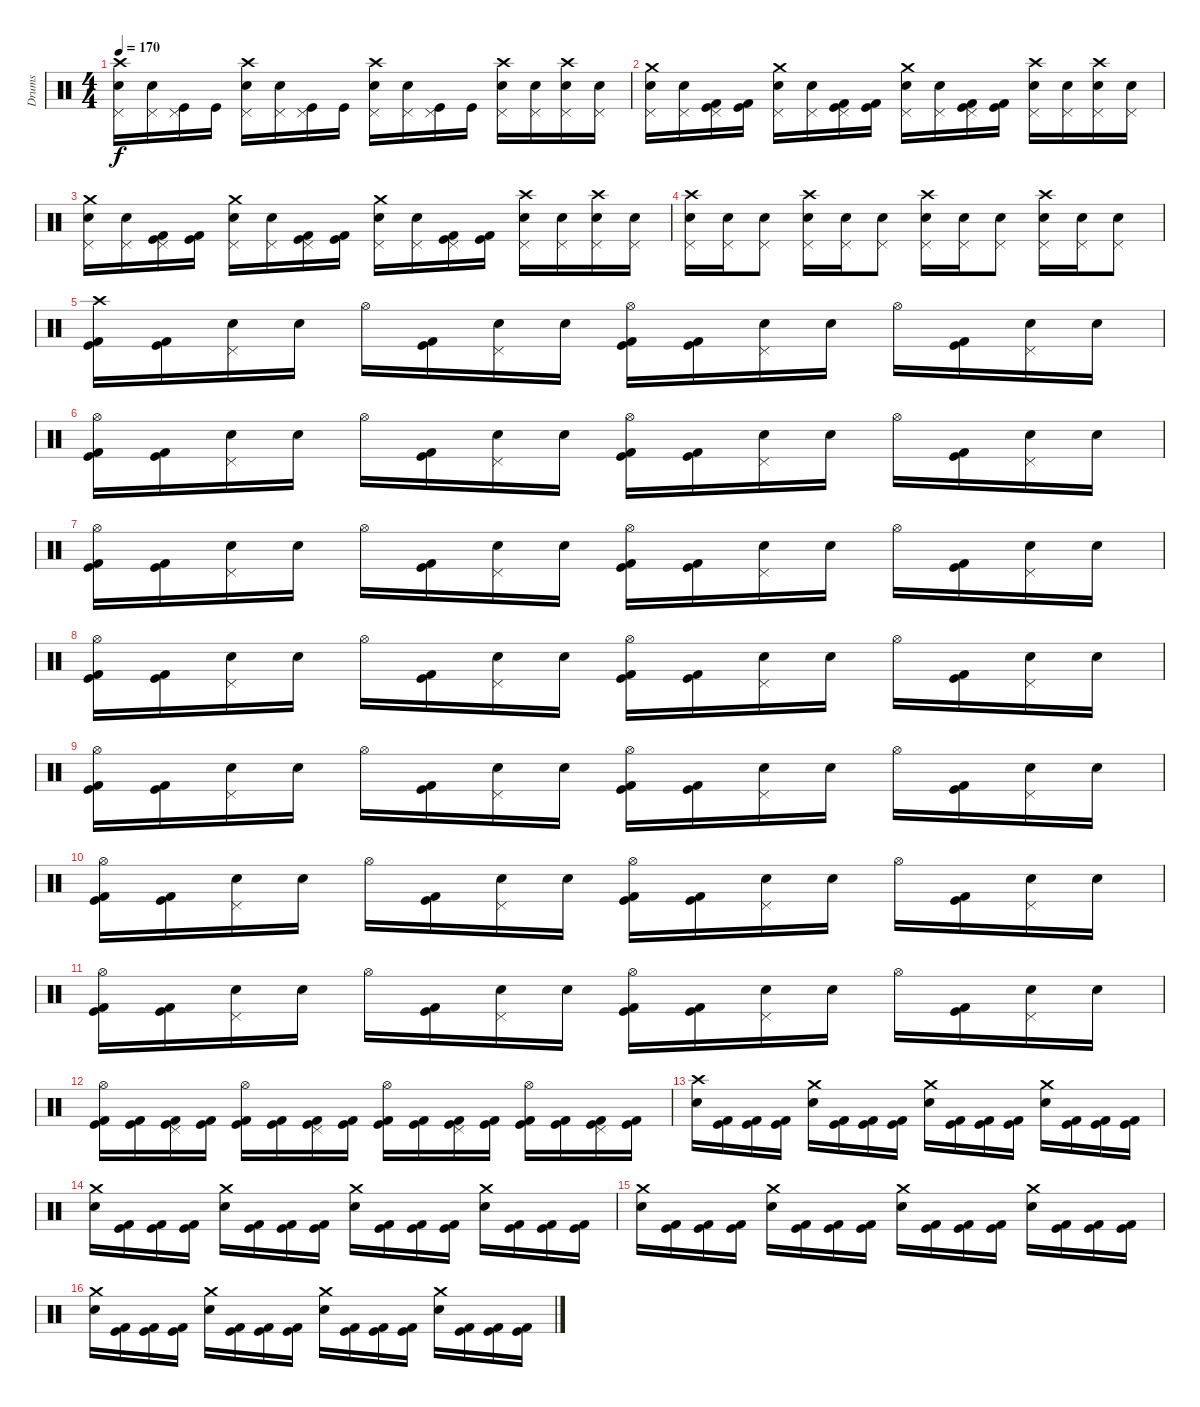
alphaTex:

\track ("Drums" "Drums") {instrument percussion}
\staff {score}
\articulation defaults
\ts (4 4)
\tempo 170
\clef neutral
\ks c
("Crash high (hit)" "Pedal Hi-Hat (hit)" "Electric Snare (hit)").16{dy f} ("Pedal Hi-Hat (hit)" "Electric Snare (hit)").16 ("Pedal Hi-Hat (hit)" "Kick (hit)").16 "Kick (hit)".16 ("Crash high (hit)" "Pedal Hi-Hat (hit)" "Electric Snare (hit)").16 ("Pedal Hi-Hat (hit)" "Electric Snare (hit)").16 ("Pedal Hi-Hat (hit)" "Kick (hit)").16 "Kick (hit)".16 ("Crash high (hit)" "Pedal Hi-Hat (hit)" "Electric Snare (hit)").16 ("Pedal Hi-Hat (hit)" "Electric Snare (hit)").16 ("Pedal Hi-Hat (hit)" "Kick (hit)").16 "Kick (hit)".16 ("Crash high (hit)" "Pedal Hi-Hat (hit)" "Electric Snare (hit)").16 ("Pedal Hi-Hat (hit)" "Electric Snare (hit)").16 ("Crash high (hit)" "Pedal Hi-Hat (hit)" "Electric Snare (hit)").16 ("Pedal Hi-Hat (hit)" "Electric Snare (hit)").16 |
("Crash medium (hit)" "Pedal Hi-Hat (hit)" "Electric Snare (hit)").16 ("Pedal Hi-Hat (hit)" "Electric Snare (hit)").16 ("Pedal Hi-Hat (hit)" "Kick (hit) 2" "Kick (hit)").16 ("Kick (hit) 2" "Kick (hit)").16 ("Crash medium (hit)" "Pedal Hi-Hat (hit)" "Electric Snare (hit)").16 ("Pedal Hi-Hat (hit)" "Electric Snare (hit)").16 ("Pedal Hi-Hat (hit)" "Kick (hit) 2" "Kick (hit)").16 ("Kick (hit) 2" "Kick (hit)").16 ("Crash medium (hit)" "Pedal Hi-Hat (hit)" "Electric Snare (hit)").16 ("Pedal Hi-Hat (hit)" "Electric Snare (hit)").16 ("Pedal Hi-Hat (hit)" "Kick (hit) 2" "Kick (hit)").16 ("Kick (hit) 2" "Kick (hit)").16 ("Crash high (hit)" "Pedal Hi-Hat (hit)" "Electric Snare (hit)").16 ("Pedal Hi-Hat (hit)" "Electric Snare (hit)").16 ("Crash high (hit)" "Pedal Hi-Hat (hit)" "Electric Snare (hit)").16 ("Pedal Hi-Hat (hit)" "Electric Snare (hit)").16 |
("Crash medium (hit)" "Pedal Hi-Hat (hit)" "Electric Snare (hit)").16 ("Pedal Hi-Hat (hit)" "Electric Snare (hit)").16 ("Pedal Hi-Hat (hit)" "Kick (hit) 2" "Kick (hit)").16 ("Kick (hit) 2" "Kick (hit)").16 ("Crash medium (hit)" "Pedal Hi-Hat (hit)" "Electric Snare (hit)").16 ("Pedal Hi-Hat (hit)" "Electric Snare (hit)").16 ("Pedal Hi-Hat (hit)" "Kick (hit) 2" "Kick (hit)").16 ("Kick (hit) 2" "Kick (hit)").16 ("Crash medium (hit)" "Pedal Hi-Hat (hit)" "Electric Snare (hit)").16 ("Pedal Hi-Hat (hit)" "Electric Snare (hit)").16 ("Pedal Hi-Hat (hit)" "Kick (hit) 2" "Kick (hit)").16 ("Kick (hit) 2" "Kick (hit)").16 ("Crash high (hit)" "Pedal Hi-Hat (hit)" "Electric Snare (hit)").16 ("Pedal Hi-Hat (hit)" "Electric Snare (hit)").16 ("Crash high (hit)" "Pedal Hi-Hat (hit)" "Electric Snare (hit)").16 ("Pedal Hi-Hat (hit)" "Electric Snare (hit)").16 |
("Crash high (hit)" "Pedal Hi-Hat (hit)" "Electric Snare (hit)").16 ("Pedal Hi-Hat (hit)" "Electric Snare (hit)").16 ("Pedal Hi-Hat (hit)" "Electric Snare (hit)").8 ("Crash high (hit)" "Pedal Hi-Hat (hit)" "Electric Snare (hit)").16 ("Pedal Hi-Hat (hit)" "Electric Snare (hit)").16 ("Pedal Hi-Hat (hit)" "Electric Snare (hit)").8 ("Crash high (hit)" "Pedal Hi-Hat (hit)" "Electric Snare (hit)").16 ("Pedal Hi-Hat (hit)" "Electric Snare (hit)").16 ("Pedal Hi-Hat (hit)" "Electric Snare (hit)").8 ("Crash high (hit)" "Pedal Hi-Hat (hit)" "Electric Snare (hit)").16 ("Pedal Hi-Hat (hit)" "Electric Snare (hit)").16 ("Pedal Hi-Hat (hit)" "Electric Snare (hit)").8 |
("Crash high (hit)" "Kick (hit) 2" "Kick (hit)").16 ("Kick (hit) 2" "Kick (hit)").16 ("Pedal Hi-Hat (hit)" "Electric Snare (hit)").16 "Electric Snare (hit)".16 "Hi-Hat (open)".16 ("Kick (hit) 2" "Kick (hit)").16 ("Pedal Hi-Hat (hit)" "Electric Snare (hit)").16 "Electric Snare (hit)".16 ("Hi-Hat (open)" "Kick (hit) 2" "Kick (hit)").16 ("Kick (hit) 2" "Kick (hit)").16 ("Pedal Hi-Hat (hit)" "Electric Snare (hit)").16 "Electric Snare (hit)".16 "Hi-Hat (open)".16 ("Kick (hit) 2" "Kick (hit)").16 ("Pedal Hi-Hat (hit)" "Electric Snare (hit)").16 "Electric Snare (hit)".16 |
("Hi-Hat (open)" "Kick (hit) 2" "Kick (hit)").16 ("Kick (hit) 2" "Kick (hit)").16 ("Pedal Hi-Hat (hit)" "Electric Snare (hit)").16 "Electric Snare (hit)".16 "Hi-Hat (open)".16 ("Kick (hit) 2" "Kick (hit)").16 ("Pedal Hi-Hat (hit)" "Electric Snare (hit)").16 "Electric Snare (hit)".16 ("Hi-Hat (open)" "Kick (hit) 2" "Kick (hit)").16 ("Kick (hit) 2" "Kick (hit)").16 ("Pedal Hi-Hat (hit)" "Electric Snare (hit)").16 "Electric Snare (hit)".16 "Hi-Hat (open)".16 ("Kick (hit) 2" "Kick (hit)").16 ("Pedal Hi-Hat (hit)" "Electric Snare (hit)").16 "Electric Snare (hit)".16 |
("Hi-Hat (open)" "Kick (hit) 2" "Kick (hit)").16 ("Kick (hit) 2" "Kick (hit)").16 ("Pedal Hi-Hat (hit)" "Electric Snare (hit)").16 "Electric Snare (hit)".16 "Hi-Hat (open)".16 ("Kick (hit) 2" "Kick (hit)").16 ("Pedal Hi-Hat (hit)" "Electric Snare (hit)").16 "Electric Snare (hit)".16 ("Hi-Hat (open)" "Kick (hit) 2" "Kick (hit)").16 ("Kick (hit) 2" "Kick (hit)").16 ("Pedal Hi-Hat (hit)" "Electric Snare (hit)").16 "Electric Snare (hit)".16 "Hi-Hat (open)".16 ("Kick (hit) 2" "Kick (hit)").16 ("Pedal Hi-Hat (hit)" "Electric Snare (hit)").16 "Electric Snare (hit)".16 |
("Hi-Hat (open)" "Kick (hit) 2" "Kick (hit)").16 ("Kick (hit) 2" "Kick (hit)").16 ("Pedal Hi-Hat (hit)" "Electric Snare (hit)").16 "Electric Snare (hit)".16 "Hi-Hat (open)".16 ("Kick (hit) 2" "Kick (hit)").16 ("Pedal Hi-Hat (hit)" "Electric Snare (hit)").16 "Electric Snare (hit)".16 ("Hi-Hat (open)" "Kick (hit) 2" "Kick (hit)").16 ("Kick (hit) 2" "Kick (hit)").16 ("Pedal Hi-Hat (hit)" "Electric Snare (hit)").16 "Electric Snare (hit)".16 "Hi-Hat (open)".16 ("Kick (hit) 2" "Kick (hit)").16 ("Pedal Hi-Hat (hit)" "Electric Snare (hit)").16 "Electric Snare (hit)".16 |
("Hi-Hat (open)" "Kick (hit) 2" "Kick (hit)").16 ("Kick (hit) 2" "Kick (hit)").16 ("Pedal Hi-Hat (hit)" "Electric Snare (hit)").16 "Electric Snare (hit)".16 "Hi-Hat (open)".16 ("Kick (hit) 2" "Kick (hit)").16 ("Pedal Hi-Hat (hit)" "Electric Snare (hit)").16 "Electric Snare (hit)".16 ("Hi-Hat (open)" "Kick (hit) 2" "Kick (hit)").16 ("Kick (hit) 2" "Kick (hit)").16 ("Pedal Hi-Hat (hit)" "Electric Snare (hit)").16 "Electric Snare (hit)".16 "Hi-Hat (open)".16 ("Kick (hit) 2" "Kick (hit)").16 ("Pedal Hi-Hat (hit)" "Electric Snare (hit)").16 "Electric Snare (hit)".16 |
("Hi-Hat (open)" "Kick (hit) 2" "Kick (hit)").16 ("Kick (hit) 2" "Kick (hit)").16 ("Pedal Hi-Hat (hit)" "Electric Snare (hit)").16 "Electric Snare (hit)".16 "Hi-Hat (open)".16 ("Kick (hit) 2" "Kick (hit)").16 ("Pedal Hi-Hat (hit)" "Electric Snare (hit)").16 "Electric Snare (hit)".16 ("Hi-Hat (open)" "Kick (hit) 2" "Kick (hit)").16 ("Kick (hit) 2" "Kick (hit)").16 ("Pedal Hi-Hat (hit)" "Electric Snare (hit)").16 "Electric Snare (hit)".16 "Hi-Hat (open)".16 ("Kick (hit) 2" "Kick (hit)").16 ("Pedal Hi-Hat (hit)" "Electric Snare (hit)").16 "Electric Snare (hit)".16 |
("Hi-Hat (open)" "Kick (hit) 2" "Kick (hit)").16 ("Kick (hit) 2" "Kick (hit)").16 ("Pedal Hi-Hat (hit)" "Electric Snare (hit)").16 "Electric Snare (hit)".16 "Hi-Hat (open)".16 ("Kick (hit) 2" "Kick (hit)").16 ("Pedal Hi-Hat (hit)" "Electric Snare (hit)").16 "Electric Snare (hit)".16 ("Hi-Hat (open)" "Kick (hit) 2" "Kick (hit)").16 ("Kick (hit) 2" "Kick (hit)").16 ("Pedal Hi-Hat (hit)" "Electric Snare (hit)").16 "Electric Snare (hit)".16 "Hi-Hat (open)".16 ("Kick (hit) 2" "Kick (hit)").16 ("Pedal Hi-Hat (hit)" "Electric Snare (hit)").16 "Electric Snare (hit)".16 |
("Hi-Hat (open)" "Kick (hit) 2" "Kick (hit)").16 ("Kick (hit) 2" "Kick (hit)").16 ("Pedal Hi-Hat (hit)" "Kick (hit) 2" "Kick (hit)").16 ("Kick (hit) 2" "Kick (hit)").16 ("Hi-Hat (open)" "Kick (hit) 2" "Kick (hit)").16 ("Kick (hit) 2" "Kick (hit)").16 ("Pedal Hi-Hat (hit)" "Kick (hit) 2" "Kick (hit)").16 ("Kick (hit) 2" "Kick (hit)").16 ("Hi-Hat (open)" "Kick (hit) 2" "Kick (hit)").16 ("Kick (hit) 2" "Kick (hit)").16 ("Pedal Hi-Hat (hit)" "Kick (hit) 2" "Kick (hit)").16 ("Kick (hit) 2" "Kick (hit)").16 ("Hi-Hat (open)" "Kick (hit) 2" "Kick (hit)").16 ("Kick (hit) 2" "Kick (hit)").16 ("Pedal Hi-Hat (hit)" "Kick (hit) 2" "Kick (hit)").16 ("Kick (hit) 2" "Kick (hit)").16 |
("Crash high (hit)" "Electric Snare (hit)").16 ("Kick (hit) 2" "Kick (hit)").16 ("Kick (hit) 2" "Kick (hit)").16 ("Kick (hit) 2" "Kick (hit)").16 ("Crash medium (hit)" "Electric Snare (hit)").16 ("Kick (hit) 2" "Kick (hit)").16 ("Kick (hit) 2" "Kick (hit)").16 ("Kick (hit) 2" "Kick (hit)").16 ("Crash medium (hit)" "Electric Snare (hit)").16 ("Kick (hit) 2" "Kick (hit)").16 ("Kick (hit) 2" "Kick (hit)").16 ("Kick (hit) 2" "Kick (hit)").16 ("Crash medium (hit)" "Electric Snare (hit)").16 ("Kick (hit) 2" "Kick (hit)").16 ("Kick (hit) 2" "Kick (hit)").16 ("Kick (hit) 2" "Kick (hit)").16 |
("Crash medium (hit)" "Electric Snare (hit)").16 ("Kick (hit) 2" "Kick (hit)").16 ("Kick (hit) 2" "Kick (hit)").16 ("Kick (hit) 2" "Kick (hit)").16 ("Crash medium (hit)" "Electric Snare (hit)").16 ("Kick (hit) 2" "Kick (hit)").16 ("Kick (hit) 2" "Kick (hit)").16 ("Kick (hit) 2" "Kick (hit)").16 ("Crash medium (hit)" "Electric Snare (hit)").16 ("Kick (hit) 2" "Kick (hit)").16 ("Kick (hit) 2" "Kick (hit)").16 ("Kick (hit) 2" "Kick (hit)").16 ("Crash medium (hit)" "Electric Snare (hit)").16 ("Kick (hit) 2" "Kick (hit)").16 ("Kick (hit) 2" "Kick (hit)").16 ("Kick (hit) 2" "Kick (hit)").16 |
("Crash medium (hit)" "Electric Snare (hit)").16 ("Kick (hit) 2" "Kick (hit)").16 ("Kick (hit) 2" "Kick (hit)").16 ("Kick (hit) 2" "Kick (hit)").16 ("Crash medium (hit)" "Electric Snare (hit)").16 ("Kick (hit) 2" "Kick (hit)").16 ("Kick (hit) 2" "Kick (hit)").16 ("Kick (hit) 2" "Kick (hit)").16 ("Crash medium (hit)" "Electric Snare (hit)").16 ("Kick (hit) 2" "Kick (hit)").16 ("Kick (hit) 2" "Kick (hit)").16 ("Kick (hit) 2" "Kick (hit)").16 ("Crash medium (hit)" "Electric Snare (hit)").16 ("Kick (hit) 2" "Kick (hit)").16 ("Kick (hit) 2" "Kick (hit)").16 ("Kick (hit) 2" "Kick (hit)").16 |
("Crash medium (hit)" "Electric Snare (hit)").16 ("Kick (hit) 2" "Kick (hit)").16 ("Kick (hit) 2" "Kick (hit)").16 ("Kick (hit) 2" "Kick (hit)").16 ("Crash medium (hit)" "Electric Snare (hit)").16 ("Kick (hit) 2" "Kick (hit)").16 ("Kick (hit) 2" "Kick (hit)").16 ("Kick (hit) 2" "Kick (hit)").16 ("Crash medium (hit)" "Electric Snare (hit)").16 ("Kick (hit) 2" "Kick (hit)").16 ("Kick (hit) 2" "Kick (hit)").16 ("Kick (hit) 2" "Kick (hit)").16 ("Crash medium (hit)" "Electric Snare (hit)").16 ("Kick (hit) 2" "Kick (hit)").16 ("Kick (hit) 2" "Kick (hit)").16 ("Kick (hit) 2" "Kick (hit)").16
